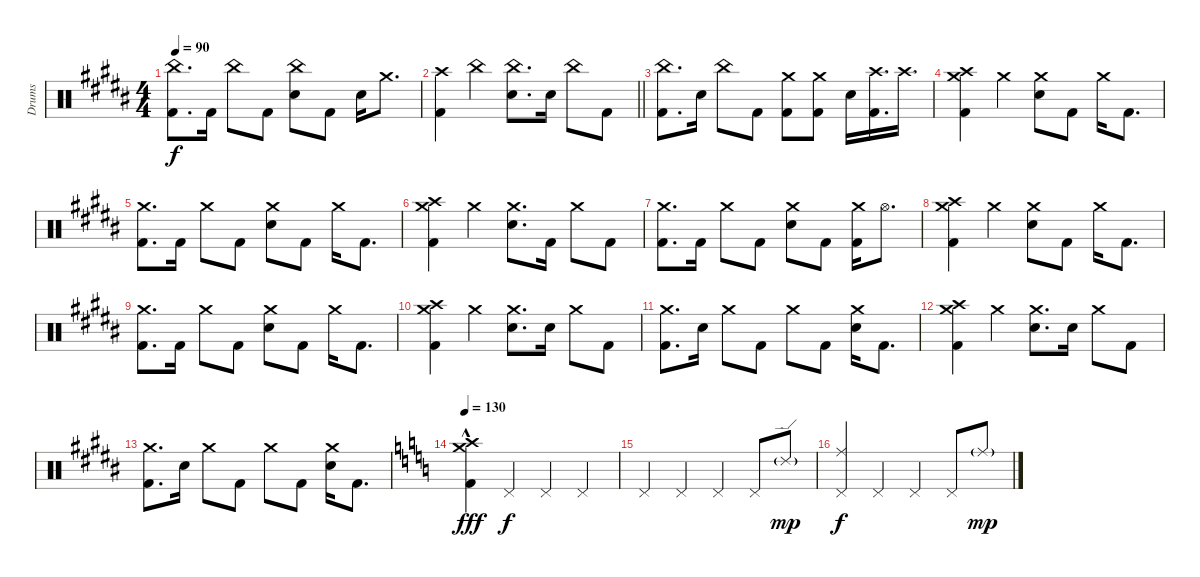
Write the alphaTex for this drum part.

\track ("Drums" "Drums") {instrument percussion}
\staff {score}
\articulation defaults
\ts (4 4)
\tempo 90
\clef neutral
\ks b
("China (hit)" "Kick (hit) 2").8{d dy f} "Kick (hit) 2".16 "China (hit)".8 "Kick (hit) 2".8 ("China (hit)" "Electric Snare (hit)").8 "Kick (hit) 2".8 "Electric Snare (hit)".16 "Crash medium (hit)".8{d} |
\barLineRight lightlight
("Crash high (hit)" "Kick (hit) 2").4 "China (hit)".4 ("China (hit)" "Electric Snare (hit)").8{d} "Electric Snare (hit)".16 "China (hit)".8 "Kick (hit) 2".8 |
("China (hit)" "Kick (hit) 2").8{d} "Electric Snare (hit)".16 "China (hit)".8 "Kick (hit) 2".8 ("Crash medium (hit)" "Kick (hit) 2").8 ("Crash medium (hit)" "Kick (hit) 2").8 "Electric Snare (hit)".16 ("Crash high (hit)" "Kick (hit) 2").16{d} "Crash high (hit)".16{d volume 0} |
("Crash medium (hit)" "Crash high (hit)" "Kick (hit) 2").4{volume 16} "Crash medium (hit)".4 ("Crash medium (hit)" "Electric Snare (hit)").8 "Kick (hit) 2".8 "Crash medium (hit)".16 "Kick (hit) 2".8{d} |
("Crash medium (hit)" "Kick (hit) 2").8{d} "Kick (hit) 2".16 "Crash medium (hit)".8 "Kick (hit) 2".8 ("Crash medium (hit)" "Electric Snare (hit)").8 "Kick (hit) 2".8 "Crash medium (hit)".16 "Kick (hit) 2".8{d} |
("Crash medium (hit)" "Crash high (hit)" "Kick (hit) 2").4 "Crash medium (hit)".4 ("Crash medium (hit)" "Electric Snare (hit)").8{d} "Kick (hit) 2".16 "Crash medium (hit)".8 "Kick (hit) 2".8 |
("Crash medium (hit)" "Kick (hit) 2").8{d} "Kick (hit) 2".16 "Crash medium (hit)".8 "Kick (hit) 2".8 ("Crash medium (hit)" "Electric Snare (hit)").8 "Kick (hit) 2".8 ("Crash medium (hit)" "Kick (hit) 2").16 "Hi-Hat (open)".8{d} |
("Crash medium (hit)" "Crash high (hit)" "Kick (hit) 2").4 "Crash medium (hit)".4 ("Crash medium (hit)" "Electric Snare (hit)").8 "Kick (hit) 2".8 "Crash medium (hit)".16 "Kick (hit) 2".8{d} |
("Crash medium (hit)" "Kick (hit) 2").8{d} "Kick (hit) 2".16 "Crash medium (hit)".8 "Kick (hit) 2".8 ("Crash medium (hit)" "Electric Snare (hit)").8 "Kick (hit) 2".8 "Crash medium (hit)".16 "Kick (hit) 2".8{d} |
("Crash medium (hit)" "Crash high (hit)" "Kick (hit) 2").4 "Crash medium (hit)".4 ("Crash medium (hit)" "Electric Snare (hit)").8{d} "Electric Snare (hit)".16 "Crash medium (hit)".8 "Kick (hit) 2".8 |
("Crash medium (hit)" "Kick (hit) 2").8{d} "Electric Snare (hit)".16 "Crash medium (hit)".8 "Kick (hit) 2".8 "Crash medium (hit)".8 "Kick (hit) 2".8 ("Crash medium (hit)" "Electric Snare (hit)").16 "Kick (hit) 2".8{d} |
("Crash medium (hit)" "Crash high (hit)" "Kick (hit) 2").4 "Crash medium (hit)".4 ("Crash medium (hit)" "Electric Snare (hit)").8{d} "Electric Snare (hit)".16 "Crash medium (hit)".8 "Kick (hit) 2".8 |
("Crash medium (hit)" "Kick (hit) 2").8{d} "Electric Snare (hit)".16 "Crash medium (hit)".8 "Kick (hit) 2".8 "Crash medium (hit)".8 "Kick (hit) 2".8 ("Crash medium (hit)" "Electric Snare (hit)").16 "Kick (hit) 2".8{d} |
\tempo 130
\ks c
("Crash medium (hit)" "Crash high (hit)" "Kick (hit) 2"{hac}).4{dy fff} "Pedal Hi-Hat (hit)".4{dy f} "Pedal Hi-Hat (hit)".4 "Pedal Hi-Hat (hit)".4 |
"Pedal Hi-Hat (hit)".4 "Pedal Hi-Hat (hit)".4 "Pedal Hi-Hat (hit)".4 "Pedal Hi-Hat (hit)".8 "Ride (edge) 2"{g}.8{dy mp} |
("Pedal Hi-Hat (hit)" "Ride (middle)").4{dy f} "Pedal Hi-Hat (hit)".4 "Pedal Hi-Hat (hit)".4 "Pedal Hi-Hat (hit)".8 "Ride (middle)"{g}.8{dy mp}
